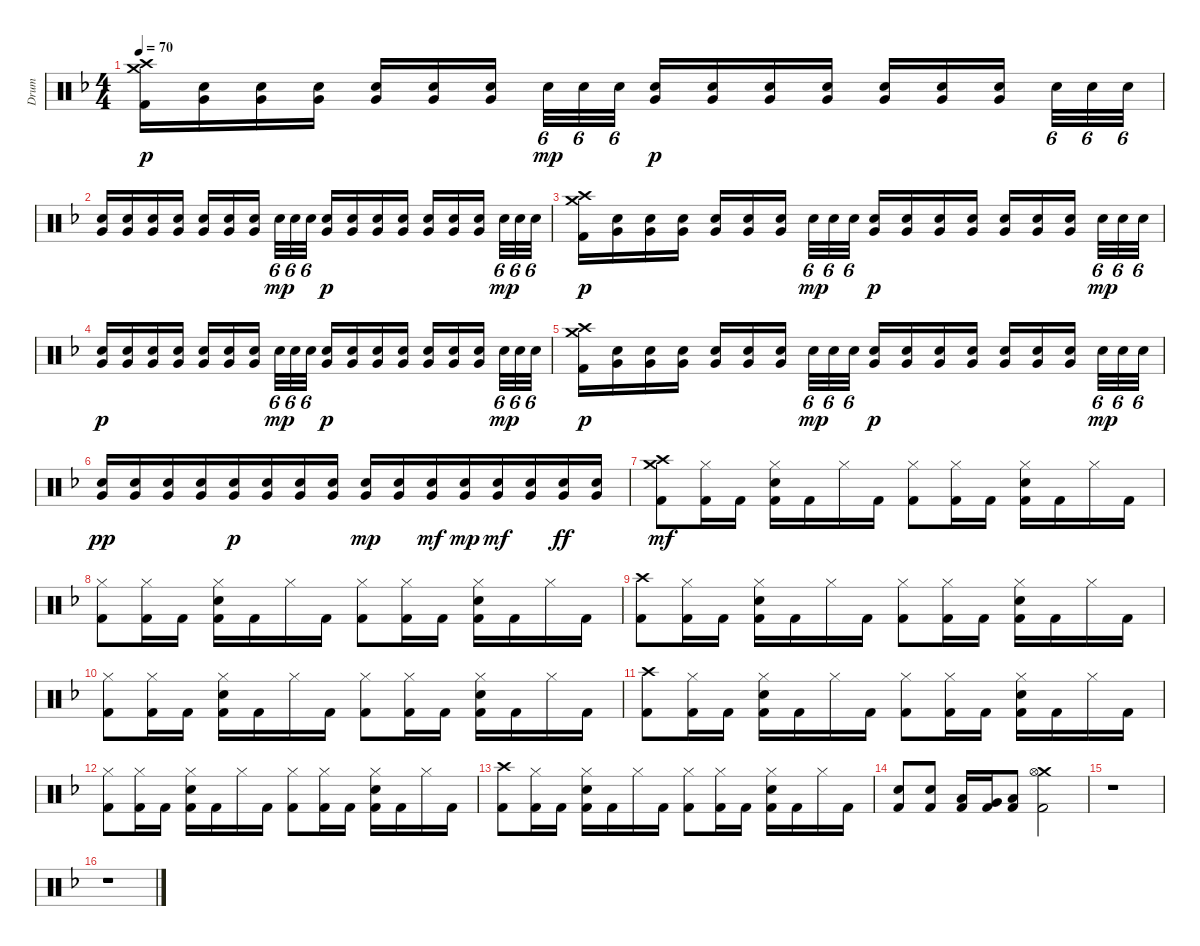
\track ("Drum" "Drum") {instrument percussion}
\staff {score}
\articulation defaults
\ts (4 4)
\tempo 70
\clef neutral
\ks f
("Crash medium (hit)" "Crash high (hit)" "Kick (hit) 2").16{dy p} ("Very Low Tom (hit)" "Electric Snare (hit)").16 ("Very Low Tom (hit)" "Electric Snare (hit)").16 ("Very Low Tom (hit)" "Electric Snare (hit)").16 ("Very Low Tom (hit)" "Electric Snare (hit)").16 ("Very Low Tom (hit)" "Electric Snare (hit)").16 ("Very Low Tom (hit)" "Electric Snare (hit)").16{beam splitsecondary} "Electric Snare (hit)".32{tu (6 4) dy mp} "Electric Snare (hit)".32{tu (6 4)} "Electric Snare (hit)".32{tu (6 4)} ("Very Low Tom (hit)" "Electric Snare (hit)").16{dy p} ("Very Low Tom (hit)" "Electric Snare (hit)").16 ("Very Low Tom (hit)" "Electric Snare (hit)").16 ("Very Low Tom (hit)" "Electric Snare (hit)").16 ("Very Low Tom (hit)" "Electric Snare (hit)").16 ("Very Low Tom (hit)" "Electric Snare (hit)").16 ("Very Low Tom (hit)" "Electric Snare (hit)").16{beam splitsecondary} "Electric Snare (hit)".32{tu (6 4)} "Electric Snare (hit)".32{tu (6 4)} "Electric Snare (hit)".32{tu (6 4)} |
("Very Low Tom (hit)" "Electric Snare (hit)").16 ("Very Low Tom (hit)" "Electric Snare (hit)").16 ("Very Low Tom (hit)" "Electric Snare (hit)").16 ("Very Low Tom (hit)" "Electric Snare (hit)").16 ("Very Low Tom (hit)" "Electric Snare (hit)").16 ("Very Low Tom (hit)" "Electric Snare (hit)").16 ("Very Low Tom (hit)" "Electric Snare (hit)").16{beam splitsecondary} "Electric Snare (hit)".32{tu (6 4) dy mp} "Electric Snare (hit)".32{tu (6 4)} "Electric Snare (hit)".32{tu (6 4)} ("Very Low Tom (hit)" "Electric Snare (hit)").16{dy p} ("Very Low Tom (hit)" "Electric Snare (hit)").16 ("Very Low Tom (hit)" "Electric Snare (hit)").16 ("Very Low Tom (hit)" "Electric Snare (hit)").16 ("Very Low Tom (hit)" "Electric Snare (hit)").16 ("Very Low Tom (hit)" "Electric Snare (hit)").16 ("Very Low Tom (hit)" "Electric Snare (hit)").16{beam splitsecondary} "Electric Snare (hit)".32{tu (6 4) dy mp} "Electric Snare (hit)".32{tu (6 4)} "Electric Snare (hit)".32{tu (6 4)} |
("Crash medium (hit)" "Crash high (hit)" "Kick (hit) 2").16{dy p} ("Very Low Tom (hit)" "Electric Snare (hit)").16 ("Very Low Tom (hit)" "Electric Snare (hit)").16 ("Very Low Tom (hit)" "Electric Snare (hit)").16 ("Very Low Tom (hit)" "Electric Snare (hit)").16 ("Very Low Tom (hit)" "Electric Snare (hit)").16 ("Very Low Tom (hit)" "Electric Snare (hit)").16{beam splitsecondary} "Electric Snare (hit)".32{tu (6 4) dy mp} "Electric Snare (hit)".32{tu (6 4)} "Electric Snare (hit)".32{tu (6 4)} ("Very Low Tom (hit)" "Electric Snare (hit)").16{dy p} ("Very Low Tom (hit)" "Electric Snare (hit)").16 ("Very Low Tom (hit)" "Electric Snare (hit)").16 ("Very Low Tom (hit)" "Electric Snare (hit)").16 ("Very Low Tom (hit)" "Electric Snare (hit)").16 ("Very Low Tom (hit)" "Electric Snare (hit)").16 ("Very Low Tom (hit)" "Electric Snare (hit)").16{beam splitsecondary} "Electric Snare (hit)".32{tu (6 4) dy mp} "Electric Snare (hit)".32{tu (6 4)} "Electric Snare (hit)".32{tu (6 4)} |
("Very Low Tom (hit)" "Electric Snare (hit)").16{dy p} ("Very Low Tom (hit)" "Electric Snare (hit)").16 ("Very Low Tom (hit)" "Electric Snare (hit)").16 ("Very Low Tom (hit)" "Electric Snare (hit)").16 ("Very Low Tom (hit)" "Electric Snare (hit)").16 ("Very Low Tom (hit)" "Electric Snare (hit)").16 ("Very Low Tom (hit)" "Electric Snare (hit)").16{beam splitsecondary} "Electric Snare (hit)".32{tu (6 4) dy mp} "Electric Snare (hit)".32{tu (6 4)} "Electric Snare (hit)".32{tu (6 4)} ("Very Low Tom (hit)" "Electric Snare (hit)").16{dy p} ("Very Low Tom (hit)" "Electric Snare (hit)").16 ("Very Low Tom (hit)" "Electric Snare (hit)").16 ("Very Low Tom (hit)" "Electric Snare (hit)").16 ("Very Low Tom (hit)" "Electric Snare (hit)").16 ("Very Low Tom (hit)" "Electric Snare (hit)").16 ("Very Low Tom (hit)" "Electric Snare (hit)").16{beam splitsecondary} "Electric Snare (hit)".32{tu (6 4) dy mp} "Electric Snare (hit)".32{tu (6 4)} "Electric Snare (hit)".32{tu (6 4)} |
("Crash medium (hit)" "Crash high (hit)" "Kick (hit) 2").16{dy p} ("Very Low Tom (hit)" "Electric Snare (hit)").16 ("Very Low Tom (hit)" "Electric Snare (hit)").16 ("Very Low Tom (hit)" "Electric Snare (hit)").16 ("Very Low Tom (hit)" "Electric Snare (hit)").16 ("Very Low Tom (hit)" "Electric Snare (hit)").16 ("Very Low Tom (hit)" "Electric Snare (hit)").16{beam splitsecondary} "Electric Snare (hit)".32{tu (6 4) dy mp} "Electric Snare (hit)".32{tu (6 4)} "Electric Snare (hit)".32{tu (6 4)} ("Very Low Tom (hit)" "Electric Snare (hit)").16{dy p} ("Very Low Tom (hit)" "Electric Snare (hit)").16 ("Very Low Tom (hit)" "Electric Snare (hit)").16 ("Very Low Tom (hit)" "Electric Snare (hit)").16 ("Very Low Tom (hit)" "Electric Snare (hit)").16 ("Very Low Tom (hit)" "Electric Snare (hit)").16 ("Very Low Tom (hit)" "Electric Snare (hit)").16{beam splitsecondary} "Electric Snare (hit)".32{tu (6 4) dy mp} "Electric Snare (hit)".32{tu (6 4)} "Electric Snare (hit)".32{tu (6 4)} |
("Very Low Tom (hit)" "Electric Snare (hit)").16{dy pp} ("Very Low Tom (hit)" "Electric Snare (hit)").16 ("Very Low Tom (hit)" "Electric Snare (hit)").16 ("Very Low Tom (hit)" "Electric Snare (hit)").16{beam merge} ("Very Low Tom (hit)" "Electric Snare (hit)").16{dy p} ("Very Low Tom (hit)" "Electric Snare (hit)").16 ("Very Low Tom (hit)" "Electric Snare (hit)").16 ("Very Low Tom (hit)" "Electric Snare (hit)").16 ("Very Low Tom (hit)" "Electric Snare (hit)").16{dy mp} ("Very Low Tom (hit)" "Electric Snare (hit)").16 ("Very Low Tom (hit)" "Electric Snare (hit)").16{dy mf} ("Very Low Tom (hit)" "Electric Snare (hit)").16{dy mp beam merge} ("Very Low Tom (hit)" "Electric Snare (hit)").16{dy mf} ("Very Low Tom (hit)" "Electric Snare (hit)").16 ("Very Low Tom (hit)" "Electric Snare (hit)").16{dy ff} ("Very Low Tom (hit)" "Electric Snare (hit)").16 |
("Crash medium (hit)" "Crash high (hit)" "Kick (hit) 2").8{dy mf} ("Hi-Hat (closed)" "Kick (hit) 2").16 "Kick (hit) 2".16 ("Hi-Hat (closed)" "Electric Snare (hit)" "Kick (hit) 2").16 "Kick (hit) 2".16 "Hi-Hat (closed)".16 "Kick (hit) 2".16 ("Hi-Hat (closed)" "Kick (hit) 2").8 ("Hi-Hat (closed)" "Kick (hit) 2").16 "Kick (hit) 2".16 ("Hi-Hat (closed)" "Electric Snare (hit)" "Kick (hit) 2").16 "Kick (hit) 2".16 "Hi-Hat (closed)".16 "Kick (hit) 2".16 |
("Hi-Hat (closed)" "Kick (hit) 2").8 ("Hi-Hat (closed)" "Kick (hit) 2").16 "Kick (hit) 2".16 ("Hi-Hat (closed)" "Electric Snare (hit)" "Kick (hit) 2").16 "Kick (hit) 2".16 "Hi-Hat (closed)".16 "Kick (hit) 2".16 ("Hi-Hat (closed)" "Kick (hit) 2").8 ("Hi-Hat (closed)" "Kick (hit) 2").16 "Kick (hit) 2".16 ("Hi-Hat (closed)" "Electric Snare (hit)" "Kick (hit) 2").16 "Kick (hit) 2".16 "Hi-Hat (closed)".16 "Kick (hit) 2".16 |
("Crash high (hit)" "Kick (hit) 2").8 ("Hi-Hat (closed)" "Kick (hit) 2").16 "Kick (hit) 2".16 ("Hi-Hat (closed)" "Electric Snare (hit)" "Kick (hit) 2").16 "Kick (hit) 2".16 "Hi-Hat (closed)".16 "Kick (hit) 2".16 ("Hi-Hat (closed)" "Kick (hit) 2").8 ("Hi-Hat (closed)" "Kick (hit) 2").16 "Kick (hit) 2".16 ("Hi-Hat (closed)" "Electric Snare (hit)" "Kick (hit) 2").16 "Kick (hit) 2".16 "Hi-Hat (closed)".16 "Kick (hit) 2".16 |
("Hi-Hat (closed)" "Kick (hit) 2").8 ("Hi-Hat (closed)" "Kick (hit) 2").16 "Kick (hit) 2".16 ("Hi-Hat (closed)" "Electric Snare (hit)" "Kick (hit) 2").16 "Kick (hit) 2".16 "Hi-Hat (closed)".16 "Kick (hit) 2".16 ("Hi-Hat (closed)" "Kick (hit) 2").8 ("Hi-Hat (closed)" "Kick (hit) 2").16 "Kick (hit) 2".16 ("Hi-Hat (closed)" "Electric Snare (hit)" "Kick (hit) 2").16 "Kick (hit) 2".16 "Hi-Hat (closed)".16 "Kick (hit) 2".16 |
("Crash high (hit)" "Kick (hit) 2").8 ("Hi-Hat (closed)" "Kick (hit) 2").16 "Kick (hit) 2".16 ("Hi-Hat (closed)" "Electric Snare (hit)" "Kick (hit) 2").16 "Kick (hit) 2".16 "Hi-Hat (closed)".16 "Kick (hit) 2".16 ("Hi-Hat (closed)" "Kick (hit) 2").8 ("Hi-Hat (closed)" "Kick (hit) 2").16 "Kick (hit) 2".16 ("Hi-Hat (closed)" "Electric Snare (hit)" "Kick (hit) 2").16 "Kick (hit) 2".16 "Hi-Hat (closed)".16 "Kick (hit) 2".16 |
("Hi-Hat (closed)" "Kick (hit) 2").8 ("Hi-Hat (closed)" "Kick (hit) 2").16 "Kick (hit) 2".16 ("Hi-Hat (closed)" "Electric Snare (hit)" "Kick (hit) 2").16 "Kick (hit) 2".16 "Hi-Hat (closed)".16 "Kick (hit) 2".16 ("Hi-Hat (closed)" "Kick (hit) 2").8 ("Hi-Hat (closed)" "Kick (hit) 2").16 "Kick (hit) 2".16 ("Hi-Hat (closed)" "Electric Snare (hit)" "Kick (hit) 2").16 "Kick (hit) 2".16 "Hi-Hat (closed)".16 "Kick (hit) 2".16 |
("Crash high (hit)" "Kick (hit) 2").8 ("Hi-Hat (closed)" "Kick (hit) 2").16 "Kick (hit) 2".16 ("Hi-Hat (closed)" "Electric Snare (hit)" "Kick (hit) 2").16 "Kick (hit) 2".16 "Hi-Hat (closed)".16 "Kick (hit) 2".16 ("Hi-Hat (closed)" "Kick (hit) 2").8 ("Hi-Hat (closed)" "Kick (hit) 2").16 "Kick (hit) 2".16 ("Hi-Hat (closed)" "Electric Snare (hit)" "Kick (hit) 2").16 "Kick (hit) 2".16 "Hi-Hat (closed)".16 "Kick (hit) 2".16 |
("Electric Snare (hit)" "Kick (hit) 2").8 ("Electric Snare (hit)" "Kick (hit) 2").8 ("Low Tom (hit)" "Kick (hit) 2").16 ("Very Low Tom (hit)" "Kick (hit) 2").16 ("Low Floor Tom (hit)" "Kick (hit) 2").8 ("Crash medium (hit)" "Hi-Hat (open)" "Kick (hit) 2").2 |
r.1 |
r.1
